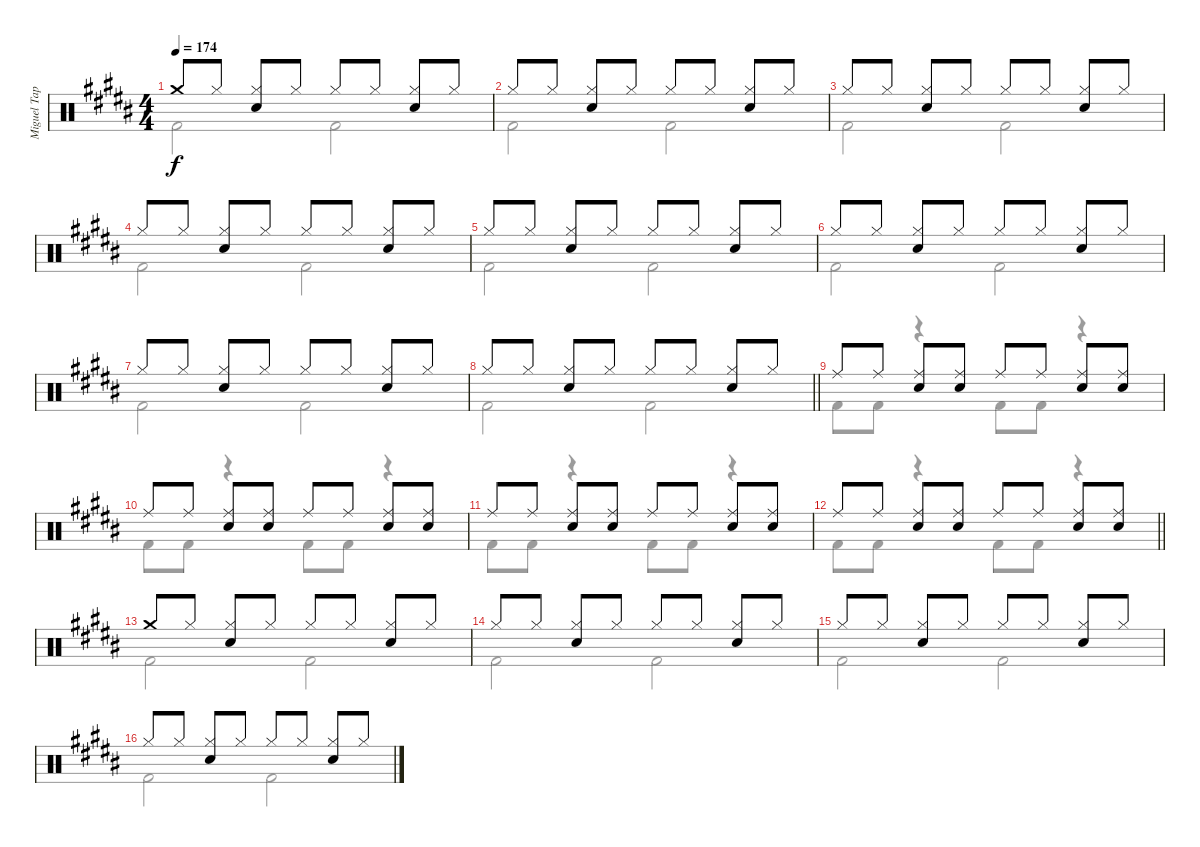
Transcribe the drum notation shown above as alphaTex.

\track ("Miguel Tapia" "Miguel Tap") {instrument percussion}
\staff {score}
\articulation defaults
\voice
\ts (4 4)
\tempo 174
\clef neutral
\ks b "Crash medium (hit)".8{dy f} "Hi-Hat (closed)".8
("Hi-Hat (closed)" "Snare (hit) 2").8 "Hi-Hat (closed)".8 "Hi-Hat (closed)".8 "Hi-Hat (closed)".8 ("Hi-Hat (closed)" "Snare (hit) 2").8 "Hi-Hat (closed)".8 |
"Hi-Hat (closed)".8 "Hi-Hat (closed)".8 ("Hi-Hat (closed)" "Snare (hit) 2").8 "Hi-Hat (closed)".8 "Hi-Hat (closed)".8 "Hi-Hat (closed)".8 ("Hi-Hat (closed)" "Snare (hit) 2").8 "Hi-Hat (closed)".8 |
"Hi-Hat (closed)".8 "Hi-Hat (closed)".8 ("Hi-Hat (closed)" "Snare (hit) 2").8 "Hi-Hat (closed)".8 "Hi-Hat (closed)".8 "Hi-Hat (closed)".8 ("Hi-Hat (closed)" "Snare (hit) 2").8 "Hi-Hat (closed)".8 |
"Hi-Hat (closed)".8 "Hi-Hat (closed)".8 ("Hi-Hat (closed)" "Snare (hit) 2").8 "Hi-Hat (closed)".8 "Hi-Hat (closed)".8 "Hi-Hat (closed)".8 ("Hi-Hat (closed)" "Snare (hit) 2").8 "Hi-Hat (closed)".8 |
"Hi-Hat (closed)".8 "Hi-Hat (closed)".8 ("Hi-Hat (closed)" "Snare (hit) 2").8 "Hi-Hat (closed)".8 "Hi-Hat (closed)".8 "Hi-Hat (closed)".8 ("Hi-Hat (closed)" "Snare (hit) 2").8 "Hi-Hat (closed)".8 |
"Hi-Hat (closed)".8 "Hi-Hat (closed)".8 ("Hi-Hat (closed)" "Snare (hit) 2").8 "Hi-Hat (closed)".8 "Hi-Hat (closed)".8 "Hi-Hat (closed)".8 ("Hi-Hat (closed)" "Snare (hit) 2").8 "Hi-Hat (closed)".8 |
"Hi-Hat (closed)".8 "Hi-Hat (closed)".8 ("Hi-Hat (closed)" "Snare (hit) 2").8 "Hi-Hat (closed)".8 "Hi-Hat (closed)".8 "Hi-Hat (closed)".8 ("Hi-Hat (closed)" "Snare (hit) 2").8 "Hi-Hat (closed)".8 |
\barLineRight lightlight "Hi-Hat (closed)".8 "Hi-Hat (closed)".8
("Hi-Hat (closed)" "Snare (hit) 2").8 "Hi-Hat (closed)".8 "Hi-Hat (closed)".8 "Hi-Hat (closed)".8 ("Hi-Hat (closed)" "Snare (hit) 2").8 "Hi-Hat (closed)".8 |
"Ride (middle)".8 "Ride (middle)".8 ("Ride (middle)" "Snare (hit) 2").8 ("Ride (middle)" "Snare (hit) 2").8 "Ride (middle)".8 "Ride (middle)".8 ("Ride (middle)" "Snare (hit) 2").8 ("Ride (middle)" "Snare (hit) 2").8 |
"Ride (middle)".8 "Ride (middle)".8 ("Ride (middle)" "Snare (hit) 2").8 ("Ride (middle)" "Snare (hit) 2").8 "Ride (middle)".8 "Ride (middle)".8 ("Ride (middle)" "Snare (hit) 2").8 ("Ride (middle)" "Snare (hit) 2").8 |
"Ride (middle)".8 "Ride (middle)".8 ("Ride (middle)" "Snare (hit) 2").8 ("Ride (middle)" "Snare (hit) 2").8 "Ride (middle)".8 "Ride (middle)".8 ("Ride (middle)" "Snare (hit) 2").8 ("Ride (middle)" "Snare (hit) 2").8 |
\barLineRight lightlight "Ride (middle)".8 "Ride (middle)".8
("Ride (middle)" "Snare (hit) 2").8 ("Ride (middle)" "Snare (hit) 2").8 "Ride (middle)".8 "Ride (middle)".8 ("Ride (middle)" "Snare (hit) 2").8 ("Ride (middle)" "Snare (hit) 2").8 |
"Crash medium (hit)".8 "Hi-Hat (closed)".8 ("Hi-Hat (closed)" "Snare (hit) 2").8 "Hi-Hat (closed)".8 "Hi-Hat (closed)".8 "Hi-Hat (closed)".8 ("Hi-Hat (closed)" "Snare (hit) 2").8 "Hi-Hat (closed)".8 |
"Hi-Hat (closed)".8 "Hi-Hat (closed)".8 ("Hi-Hat (closed)" "Snare (hit) 2").8 "Hi-Hat (closed)".8 "Hi-Hat (closed)".8 "Hi-Hat (closed)".8 ("Hi-Hat (closed)" "Snare (hit) 2").8 "Hi-Hat (closed)".8 |
"Hi-Hat (closed)".8 "Hi-Hat (closed)".8 ("Hi-Hat (closed)" "Snare (hit) 2").8 "Hi-Hat (closed)".8 "Hi-Hat (closed)".8 "Hi-Hat (closed)".8 ("Hi-Hat (closed)" "Snare (hit) 2").8 "Hi-Hat (closed)".8 |
"Hi-Hat (closed)".8 "Hi-Hat (closed)".8 ("Hi-Hat (closed)" "Snare (hit) 2").8 "Hi-Hat (closed)".8 "Hi-Hat (closed)".8 "Hi-Hat (closed)".8 ("Hi-Hat (closed)" "Snare (hit) 2").8 "Hi-Hat (closed)".8
\voice
\clef neutral
\ottava regular
\simile none
\ks b "Kick (hit) 2".2{dy f} "Kick (hit) 2".2
|
"Kick (hit) 2".2 "Kick (hit) 2".2 |
"Kick (hit) 2".2 "Kick (hit) 2".2 |
"Kick (hit) 2".2 "Kick (hit) 2".2 |
"Kick (hit) 2".2 "Kick (hit) 2".2 |
"Kick (hit) 2".2 "Kick (hit) 2".2 |
"Kick (hit) 2".2 "Kick (hit) 2".2 |
\barLineRight lightlight "Kick (hit) 2".2 "Kick (hit) 2".2
|
"Kick (hit) 2".8 "Kick (hit) 2".8 r.4 "Kick (hit) 2".8 "Kick (hit) 2".8 r.4 |
"Kick (hit) 2".8 "Kick (hit) 2".8 r.4 "Kick (hit) 2".8 "Kick (hit) 2".8 r.4 |
"Kick (hit) 2".8 "Kick (hit) 2".8 r.4 "Kick (hit) 2".8 "Kick (hit) 2".8 r.4 |
\barLineRight lightlight "Kick (hit) 2".8 "Kick (hit) 2".8
r.4 "Kick (hit) 2".8 "Kick (hit) 2".8 r.4 |
"Kick (hit) 2".2 "Kick (hit) 2".2 |
"Kick (hit) 2".2 "Kick (hit) 2".2 |
"Kick (hit) 2".2 "Kick (hit) 2".2 |
"Kick (hit) 2".2 "Kick (hit) 2".2
